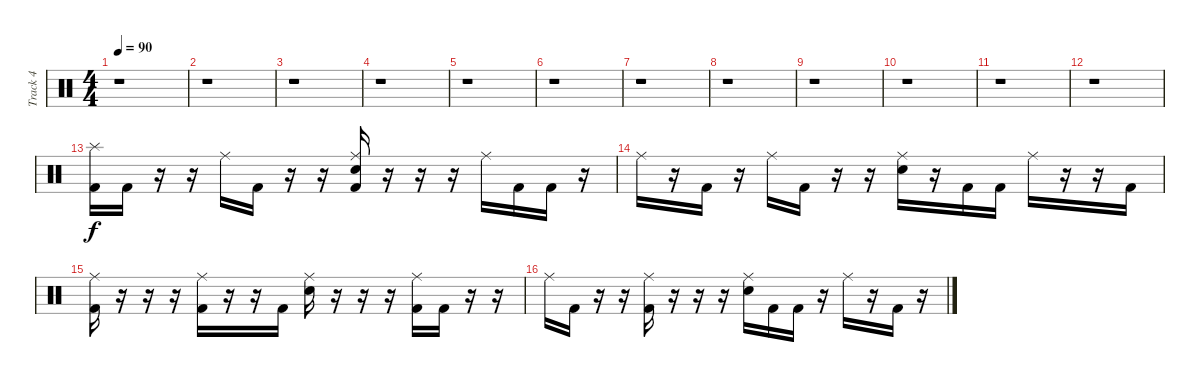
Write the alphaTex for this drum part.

\track ("Track 4" "Track 4") {instrument percussion}
\staff {score}
\articulation defaults
\ts (4 4)
\tempo 90
\clef neutral
\ks c
r.1{dy f} |
r.1 |
r.1 |
r.1 |
r.1 |
r.1 |
r.1 |
r.1 |
r.1 |
r.1 |
r.1 |
r.1 |
("Splash (hit)" "Kick (hit) 2").16 "Kick (hit) 2".16 r.16 r.16 "Ride (middle)".16 "Kick (hit) 2".16 r.16 r.16 ("Ride (middle)" "Electric Snare (hit)" "Kick (hit) 2").16 r.16 r.16 r.16 "Ride (middle)".16 "Kick (hit) 2".16 "Kick (hit) 2".16 r.16 |
"Ride (middle)".16 r.16 "Kick (hit) 2".16 r.16 "Ride (middle)".16 "Kick (hit) 2".16 r.16 r.16 ("Ride (middle)" "Electric Snare (hit)").16 r.16 "Kick (hit) 2".16 "Kick (hit) 2".16 "Ride (middle)".16 r.16 r.16 "Kick (hit) 2".16 |
("Ride (middle)" "Kick (hit) 2").16 r.16 r.16 r.16 ("Ride (middle)" "Kick (hit) 2").16 r.16 r.16 "Kick (hit) 2".16 ("Ride (middle)" "Electric Snare (hit)").16 r.16 r.16 r.16 ("Ride (middle)" "Kick (hit) 2").16 "Kick (hit) 2".16 r.16 r.16 |
"Ride (middle)".16 "Kick (hit) 2".16 r.16 r.16 ("Ride (middle)" "Kick (hit) 2").16 r.16 r.16 r.16 ("Ride (middle)" "Electric Snare (hit)").16 "Kick (hit) 2".16 "Kick (hit) 2".16 r.16 "Ride (middle)".16 r.16 "Kick (hit) 2".16 r.16
